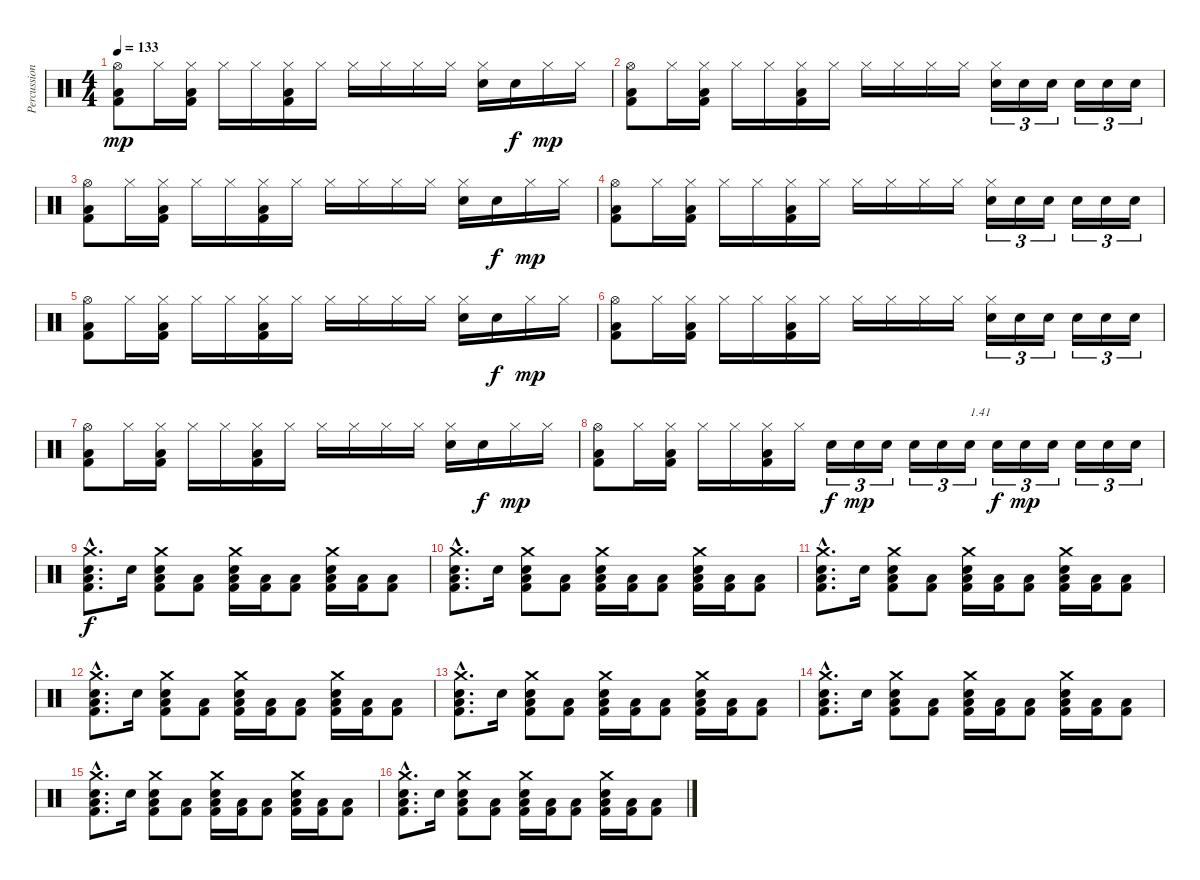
\track ("Percussions" "Percussion") {instrument percussion}
\staff {score}
\articulation defaults
\ts (4 4)
\tempo 133
\clef neutral
\ks c
("Kick (hit) 2" "Low Floor Tom (hit)" "Hi-Hat (open)").8{dy mp} "Hi-Hat (closed)".16 ("Kick (hit) 2" "Low Floor Tom (hit)" "Hi-Hat (closed)").16 "Hi-Hat (closed)".16 "Hi-Hat (closed)".16 ("Kick (hit) 2" "Low Floor Tom (hit)" "Hi-Hat (closed)").16 "Hi-Hat (closed)".16 "Hi-Hat (closed)".16 "Hi-Hat (closed)".16 "Hi-Hat (closed)".16 "Hi-Hat (closed)".16 ("Electric Snare (hit)" "Hi-Hat (closed)").16 "Electric Snare (hit)".16{dy f} "Hi-Hat (closed)".16{dy mp} "Hi-Hat (closed)".16 |
("Kick (hit) 2" "Low Floor Tom (hit)" "Hi-Hat (open)").8 "Hi-Hat (closed)".16 ("Kick (hit) 2" "Low Floor Tom (hit)" "Hi-Hat (closed)").16 "Hi-Hat (closed)".16 "Hi-Hat (closed)".16 ("Kick (hit) 2" "Low Floor Tom (hit)" "Hi-Hat (closed)").16 "Hi-Hat (closed)".16 "Hi-Hat (closed)".16 "Hi-Hat (closed)".16 "Hi-Hat (closed)".16 "Hi-Hat (closed)".16 ("Electric Snare (hit)" "Hi-Hat (closed)").16{tu (3 2)} "Electric Snare (hit)".16{tu (3 2)} "Electric Snare (hit)".16{tu (3 2)} "Electric Snare (hit)".16{tu (3 2)} "Electric Snare (hit)".16{tu (3 2)} "Electric Snare (hit)".16{tu (3 2)} |
("Kick (hit) 2" "Low Floor Tom (hit)" "Hi-Hat (open)").8 "Hi-Hat (closed)".16 ("Kick (hit) 2" "Low Floor Tom (hit)" "Hi-Hat (closed)").16 "Hi-Hat (closed)".16 "Hi-Hat (closed)".16 ("Kick (hit) 2" "Low Floor Tom (hit)" "Hi-Hat (closed)").16 "Hi-Hat (closed)".16 "Hi-Hat (closed)".16 "Hi-Hat (closed)".16 "Hi-Hat (closed)".16 "Hi-Hat (closed)".16 ("Electric Snare (hit)" "Hi-Hat (closed)").16 "Electric Snare (hit)".16{dy f} "Hi-Hat (closed)".16{dy mp} "Hi-Hat (closed)".16 |
("Kick (hit) 2" "Low Floor Tom (hit)" "Hi-Hat (open)").8 "Hi-Hat (closed)".16 ("Kick (hit) 2" "Low Floor Tom (hit)" "Hi-Hat (closed)").16 "Hi-Hat (closed)".16 "Hi-Hat (closed)".16 ("Kick (hit) 2" "Low Floor Tom (hit)" "Hi-Hat (closed)").16 "Hi-Hat (closed)".16 "Hi-Hat (closed)".16 "Hi-Hat (closed)".16 "Hi-Hat (closed)".16 "Hi-Hat (closed)".16 ("Electric Snare (hit)" "Hi-Hat (closed)").16{tu (3 2)} "Electric Snare (hit)".16{tu (3 2)} "Electric Snare (hit)".16{tu (3 2)} "Electric Snare (hit)".16{tu (3 2)} "Electric Snare (hit)".16{tu (3 2)} "Electric Snare (hit)".16{tu (3 2)} |
("Kick (hit) 2" "Low Floor Tom (hit)" "Hi-Hat (open)").8 "Hi-Hat (closed)".16 ("Kick (hit) 2" "Low Floor Tom (hit)" "Hi-Hat (closed)").16 "Hi-Hat (closed)".16 "Hi-Hat (closed)".16 ("Kick (hit) 2" "Low Floor Tom (hit)" "Hi-Hat (closed)").16 "Hi-Hat (closed)".16 "Hi-Hat (closed)".16 "Hi-Hat (closed)".16 "Hi-Hat (closed)".16 "Hi-Hat (closed)".16 ("Electric Snare (hit)" "Hi-Hat (closed)").16 "Electric Snare (hit)".16{dy f} "Hi-Hat (closed)".16{dy mp} "Hi-Hat (closed)".16 |
("Kick (hit) 2" "Low Floor Tom (hit)" "Hi-Hat (open)").8 "Hi-Hat (closed)".16 ("Kick (hit) 2" "Low Floor Tom (hit)" "Hi-Hat (closed)").16 "Hi-Hat (closed)".16 "Hi-Hat (closed)".16 ("Kick (hit) 2" "Low Floor Tom (hit)" "Hi-Hat (closed)").16 "Hi-Hat (closed)".16 "Hi-Hat (closed)".16 "Hi-Hat (closed)".16 "Hi-Hat (closed)".16 "Hi-Hat (closed)".16 ("Electric Snare (hit)" "Hi-Hat (closed)").16{tu (3 2)} "Electric Snare (hit)".16{tu (3 2)} "Electric Snare (hit)".16{tu (3 2)} "Electric Snare (hit)".16{tu (3 2)} "Electric Snare (hit)".16{tu (3 2)} "Electric Snare (hit)".16{tu (3 2)} |
("Kick (hit) 2" "Low Floor Tom (hit)" "Hi-Hat (open)").8 "Hi-Hat (closed)".16 ("Kick (hit) 2" "Low Floor Tom (hit)" "Hi-Hat (closed)").16 "Hi-Hat (closed)".16 "Hi-Hat (closed)".16 ("Kick (hit) 2" "Low Floor Tom (hit)" "Hi-Hat (closed)").16 "Hi-Hat (closed)".16 "Hi-Hat (closed)".16 "Hi-Hat (closed)".16 "Hi-Hat (closed)".16 "Hi-Hat (closed)".16 ("Electric Snare (hit)" "Hi-Hat (closed)").16 "Electric Snare (hit)".16{dy f} "Hi-Hat (closed)".16{dy mp} "Hi-Hat (closed)".16 |
("Kick (hit) 2" "Low Floor Tom (hit)" "Hi-Hat (open)").8 "Hi-Hat (closed)".16 ("Kick (hit) 2" "Low Floor Tom (hit)" "Hi-Hat (closed)").16 "Hi-Hat (closed)".16 "Hi-Hat (closed)".16 ("Kick (hit) 2" "Low Floor Tom (hit)" "Hi-Hat (closed)").16 "Hi-Hat (closed)".16 "Electric Snare (hit)".16{tu (3 2) dy f} "Electric Snare (hit)".16{tu (3 2) dy mp} "Electric Snare (hit)".16{tu (3 2)} "Electric Snare (hit)".16{tu (3 2)} "Electric Snare (hit)".16{tu (3 2)} "Electric Snare (hit)".16{tu (3 2) txt "1.41"} "Electric Snare (hit)".16{tu (3 2) dy f} "Electric Snare (hit)".16{tu (3 2) dy mp} "Electric Snare (hit)".16{tu (3 2)} "Electric Snare (hit)".16{tu (3 2)} "Electric Snare (hit)".16{tu (3 2)} "Electric Snare (hit)".16{tu (3 2)} |
("Kick (hit) 2"{hac} "Low Floor Tom (hit)"{hac} "Electric Snare (hit)"{hac} "Crash medium (hit)"{hac}).8{d dy f} "Electric Snare (hit)".16 ("Kick (hit) 2" "Low Floor Tom (hit)" "Electric Snare (hit)" "Crash medium (hit)").8 ("Kick (hit) 2" "Low Floor Tom (hit)").8 ("Kick (hit) 2" "Low Floor Tom (hit)" "Electric Snare (hit)" "Crash medium (hit)").16 ("Kick (hit) 2" "Low Floor Tom (hit)").16 ("Kick (hit) 2" "Low Floor Tom (hit)").8 ("Kick (hit) 2" "Low Floor Tom (hit)" "Electric Snare (hit)" "Crash medium (hit)").16 ("Kick (hit) 2" "Low Floor Tom (hit)").16 ("Kick (hit) 2" "Low Floor Tom (hit)").8 |
("Kick (hit) 2"{hac} "Low Floor Tom (hit)"{hac} "Electric Snare (hit)"{hac} "Crash medium (hit)"{hac}).8{d} "Electric Snare (hit)".16 ("Kick (hit) 2" "Low Floor Tom (hit)" "Electric Snare (hit)" "Crash medium (hit)").8 ("Kick (hit) 2" "Low Floor Tom (hit)").8 ("Kick (hit) 2" "Low Floor Tom (hit)" "Electric Snare (hit)" "Crash medium (hit)").16 ("Kick (hit) 2" "Low Floor Tom (hit)").16 ("Kick (hit) 2" "Low Floor Tom (hit)").8 ("Kick (hit) 2" "Low Floor Tom (hit)" "Electric Snare (hit)" "Crash medium (hit)").16 ("Kick (hit) 2" "Low Floor Tom (hit)").16 ("Kick (hit) 2" "Low Floor Tom (hit)").8 |
("Kick (hit) 2"{hac} "Low Floor Tom (hit)"{hac} "Electric Snare (hit)"{hac} "Crash medium (hit)"{hac}).8{d} "Electric Snare (hit)".16 ("Kick (hit) 2" "Low Floor Tom (hit)" "Electric Snare (hit)" "Crash medium (hit)").8 ("Kick (hit) 2" "Low Floor Tom (hit)").8 ("Kick (hit) 2" "Low Floor Tom (hit)" "Electric Snare (hit)" "Crash medium (hit)").16 ("Kick (hit) 2" "Low Floor Tom (hit)").16 ("Kick (hit) 2" "Low Floor Tom (hit)").8 ("Kick (hit) 2" "Low Floor Tom (hit)" "Electric Snare (hit)" "Crash medium (hit)").16 ("Kick (hit) 2" "Low Floor Tom (hit)").16 ("Kick (hit) 2" "Low Floor Tom (hit)").8 |
("Kick (hit) 2"{hac} "Low Floor Tom (hit)"{hac} "Electric Snare (hit)"{hac} "Crash medium (hit)"{hac}).8{d} "Electric Snare (hit)".16 ("Kick (hit) 2" "Low Floor Tom (hit)" "Electric Snare (hit)" "Crash medium (hit)").8 ("Kick (hit) 2" "Low Floor Tom (hit)").8 ("Kick (hit) 2" "Low Floor Tom (hit)" "Electric Snare (hit)" "Crash medium (hit)").16 ("Kick (hit) 2" "Low Floor Tom (hit)").16 ("Kick (hit) 2" "Low Floor Tom (hit)").8 ("Kick (hit) 2" "Low Floor Tom (hit)" "Electric Snare (hit)" "Crash medium (hit)").16 ("Kick (hit) 2" "Low Floor Tom (hit)").16 ("Kick (hit) 2" "Low Floor Tom (hit)").8 |
("Kick (hit) 2"{hac} "Low Floor Tom (hit)"{hac} "Electric Snare (hit)"{hac} "Crash medium (hit)"{hac}).8{d} "Electric Snare (hit)".16 ("Kick (hit) 2" "Low Floor Tom (hit)" "Electric Snare (hit)" "Crash medium (hit)").8 ("Kick (hit) 2" "Low Floor Tom (hit)").8 ("Kick (hit) 2" "Low Floor Tom (hit)" "Electric Snare (hit)" "Crash medium (hit)").16 ("Kick (hit) 2" "Low Floor Tom (hit)").16 ("Kick (hit) 2" "Low Floor Tom (hit)").8 ("Kick (hit) 2" "Low Floor Tom (hit)" "Electric Snare (hit)" "Crash medium (hit)").16 ("Kick (hit) 2" "Low Floor Tom (hit)").16 ("Kick (hit) 2" "Low Floor Tom (hit)").8 |
("Kick (hit) 2"{hac} "Low Floor Tom (hit)"{hac} "Electric Snare (hit)"{hac} "Crash medium (hit)"{hac}).8{d} "Electric Snare (hit)".16 ("Kick (hit) 2" "Low Floor Tom (hit)" "Electric Snare (hit)" "Crash medium (hit)").8 ("Kick (hit) 2" "Low Floor Tom (hit)").8 ("Kick (hit) 2" "Low Floor Tom (hit)" "Electric Snare (hit)" "Crash medium (hit)").16 ("Kick (hit) 2" "Low Floor Tom (hit)").16 ("Kick (hit) 2" "Low Floor Tom (hit)").8 ("Kick (hit) 2" "Low Floor Tom (hit)" "Electric Snare (hit)" "Crash medium (hit)").16 ("Kick (hit) 2" "Low Floor Tom (hit)").16 ("Kick (hit) 2" "Low Floor Tom (hit)").8 |
("Kick (hit) 2"{hac} "Low Floor Tom (hit)"{hac} "Electric Snare (hit)"{hac} "Crash medium (hit)"{hac}).8{d} "Electric Snare (hit)".16 ("Kick (hit) 2" "Low Floor Tom (hit)" "Electric Snare (hit)" "Crash medium (hit)").8 ("Kick (hit) 2" "Low Floor Tom (hit)").8 ("Kick (hit) 2" "Low Floor Tom (hit)" "Electric Snare (hit)" "Crash medium (hit)").16 ("Kick (hit) 2" "Low Floor Tom (hit)").16 ("Kick (hit) 2" "Low Floor Tom (hit)").8 ("Kick (hit) 2" "Low Floor Tom (hit)" "Electric Snare (hit)" "Crash medium (hit)").16 ("Kick (hit) 2" "Low Floor Tom (hit)").16 ("Kick (hit) 2" "Low Floor Tom (hit)").8 |
("Kick (hit) 2"{hac} "Low Floor Tom (hit)"{hac} "Electric Snare (hit)"{hac} "Crash medium (hit)"{hac}).8{d} "Electric Snare (hit)".16 ("Kick (hit) 2" "Low Floor Tom (hit)" "Electric Snare (hit)" "Crash medium (hit)").8 ("Kick (hit) 2" "Low Floor Tom (hit)").8 ("Kick (hit) 2" "Low Floor Tom (hit)" "Electric Snare (hit)" "Crash medium (hit)").16 ("Kick (hit) 2" "Low Floor Tom (hit)").16 ("Kick (hit) 2" "Low Floor Tom (hit)").8 ("Kick (hit) 2" "Low Floor Tom (hit)" "Electric Snare (hit)" "Crash medium (hit)").16 ("Kick (hit) 2" "Low Floor Tom (hit)").16 ("Kick (hit) 2" "Low Floor Tom (hit)").8
